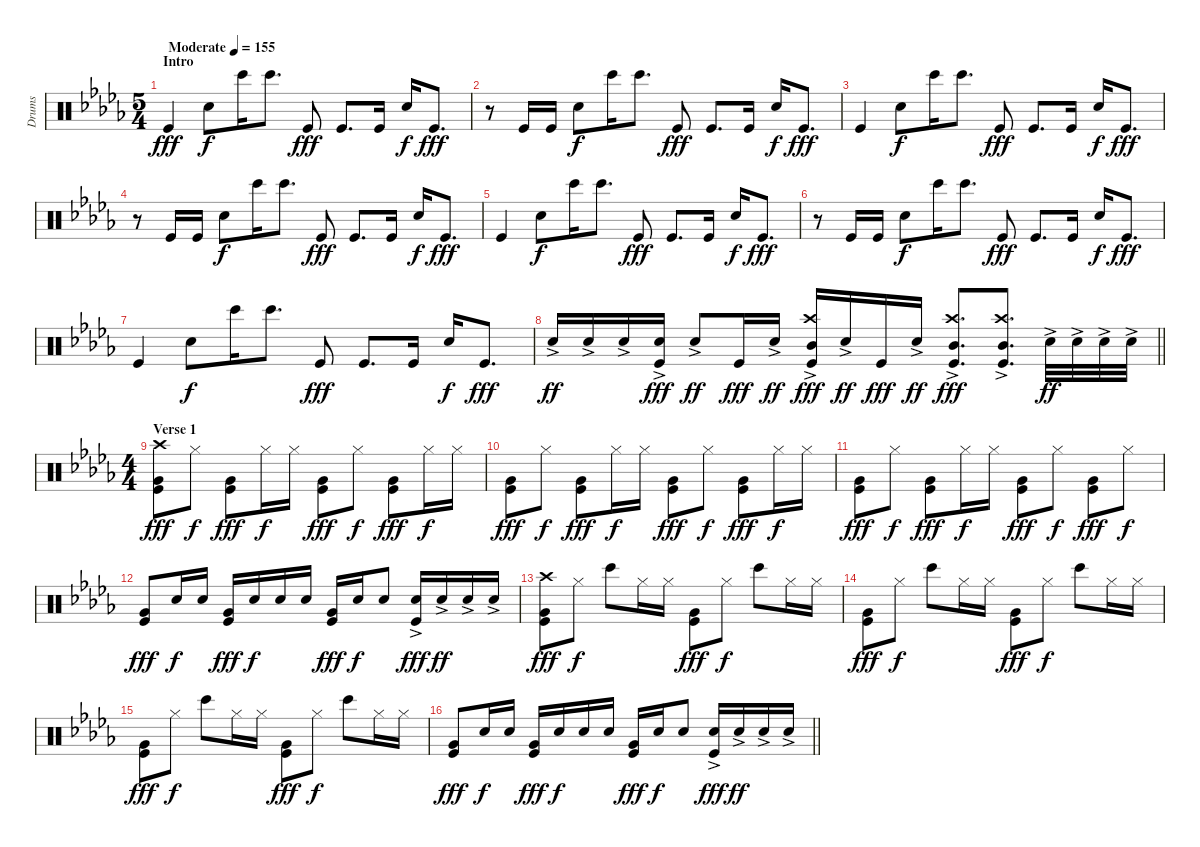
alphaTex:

\track ("Drums" "Drums") {instrument percussion bank 25}
\staff {score}
\articulation defaults
\ts (5 4)
\section ("" "Intro")
\tempo (155 "Moderate")
\clef neutral
\ks bbminor "Kick (hit)".4{dy fff} "Snare (hit) 2".8{dy f} "Bongo High (hit)".16 "Bongo High (hit)".8{d} "Kick (hit)".8{dy fff} "Kick (hit)".8{d} "Kick (hit)".16 "Snare (hit) 2".16{dy f} "Kick (hit)".8{d dy fff}
|
r.8 "Kick (hit)".16 "Kick (hit)".16 "Snare (hit) 2".8{dy f} "Bongo High (hit)".16 "Bongo High (hit)".8{d} "Kick (hit)".8{dy fff} "Kick (hit)".8{d} "Kick (hit)".16 "Snare (hit) 2".16{dy f} "Kick (hit)".8{d dy fff} |
"Kick (hit)".4 "Snare (hit) 2".8{dy f} "Bongo High (hit)".16 "Bongo High (hit)".8{d} "Kick (hit)".8{dy fff} "Kick (hit)".8{d} "Kick (hit)".16 "Snare (hit) 2".16{dy f} "Kick (hit)".8{d dy fff} |
r.8 "Kick (hit)".16 "Kick (hit)".16 "Snare (hit) 2".8{dy f} "Bongo High (hit)".16 "Bongo High (hit)".8{d} "Kick (hit)".8{dy fff} "Kick (hit)".8{d} "Kick (hit)".16 "Snare (hit) 2".16{dy f} "Kick (hit)".8{d dy fff} |
"Kick (hit)".4 "Snare (hit) 2".8{dy f} "Bongo High (hit)".16 "Bongo High (hit)".8{d} "Kick (hit)".8{dy fff} "Kick (hit)".8{d} "Kick (hit)".16 "Snare (hit) 2".16{dy f} "Kick (hit)".8{d dy fff} |
r.8 "Kick (hit)".16 "Kick (hit)".16 "Snare (hit) 2".8{dy f} "Bongo High (hit)".16 "Bongo High (hit)".8{d} "Kick (hit)".8{dy fff} "Kick (hit)".8{d} "Kick (hit)".16 "Snare (hit) 2".16{dy f} "Kick (hit)".8{d dy fff} |
"Kick (hit)".4 "Snare (hit) 2".8{dy f} "Bongo High (hit)".16 "Bongo High (hit)".8{d} "Kick (hit)".8{dy fff} "Kick (hit)".8{d} "Kick (hit)".16 "Snare (hit) 2".16{dy f} "Kick (hit)".8{d dy fff} |
\barLineRight lightlight "Snare (hit) 2"{ac}.16{dy ff} "Snare (hit) 2"{ac}.16 "Snare (hit) 2"{ac}.16
("Snare (hit) 2"{ac} "Kick (hit)").16{dy fff} "Snare (hit) 2"{ac}.8{dy ff} "Kick (hit)".16{dy fff} "Snare (hit) 2"{ac}.16{dy ff} ("Crash high (hit)" "Mid Tom (hit)"{ac} "Kick (hit)").16{dy fff} "Snare (hit) 2"{ac}.16{dy ff} "Kick (hit)".16{dy fff} "Snare (hit) 2"{ac}.16{dy ff} ("Crash high (hit)" "Mid Tom (hit)"{ac} "Kick (hit)").8{d dy fff} ("Crash high (hit)" "Mid Tom (hit)"{ac} "Kick (hit)").8{d} "Snare (hit) 2"{ac}.32{dy ff} "Snare (hit) 2"{ac}.32 "Snare (hit) 2"{ac}.32 "Snare (hit) 2"{ac}.32 |
\ts (4 4)
\section ("" "Verse 1")
("Crash high (hit)" "Very Low Tom (hit)" "Kick (hit)").8{dy fff} "Hi-Hat (closed)".8{dy f} ("Very Low Tom (hit)" "Kick (hit)").8{dy fff} "Hi-Hat (closed)".16{dy f} "Hi-Hat (closed)".16 ("Very Low Tom (hit)" "Kick (hit)").8{dy fff} "Hi-Hat (closed)".8{dy f} ("Very Low Tom (hit)" "Kick (hit)").8{dy fff} "Hi-Hat (closed)".16{dy f} "Hi-Hat (closed)".16 |
("Very Low Tom (hit)" "Kick (hit)").8{dy fff} "Hi-Hat (closed)".8{dy f} ("Very Low Tom (hit)" "Kick (hit)").8{dy fff} "Hi-Hat (closed)".16{dy f} "Hi-Hat (closed)".16 ("Very Low Tom (hit)" "Kick (hit)").8{dy fff} "Hi-Hat (closed)".8{dy f} ("Very Low Tom (hit)" "Kick (hit)").8{dy fff} "Hi-Hat (closed)".16{dy f} "Hi-Hat (closed)".16 |
("Very Low Tom (hit)" "Kick (hit)").8{dy fff} "Hi-Hat (closed)".8{dy f} ("Very Low Tom (hit)" "Kick (hit)").8{dy fff} "Hi-Hat (closed)".16{dy f} "Hi-Hat (closed)".16 ("Very Low Tom (hit)" "Kick (hit)").8{dy fff} "Hi-Hat (closed)".8{dy f} ("Very Low Tom (hit)" "Kick (hit)").8{dy fff} "Hi-Hat (closed)".8{dy f} |
("Very Low Tom (hit)" "Kick (hit)").8{dy fff} "Snare (hit) 2".16{dy f} "Snare (hit) 2".16 ("Very Low Tom (hit)" "Kick (hit)").16{dy fff} "Snare (hit) 2".16{dy f} "Snare (hit) 2".16 "Snare (hit) 2".16 ("Very Low Tom (hit)" "Kick (hit)").16{dy fff} "Snare (hit) 2".16{dy f} "Snare (hit) 2".8 ("Snare (hit) 2"{ac} "Kick (hit)").16{dy fff} "Snare (hit) 2"{ac}.16{dy ff} "Snare (hit) 2"{ac}.16 "Snare (hit) 2"{ac}.16 |
("Crash high (hit)" "Very Low Tom (hit)" "Kick (hit)").8{dy fff} "Hi-Hat (closed)".8{dy f} "Bongo High (hit)".8 "Hi-Hat (closed)".16 "Hi-Hat (closed)".16 ("Very Low Tom (hit)" "Kick (hit)").8{dy fff} "Hi-Hat (closed)".8{dy f} "Bongo High (hit)".8 "Hi-Hat (closed)".16 "Hi-Hat (closed)".16 |
("Very Low Tom (hit)" "Kick (hit)").8{dy fff} "Hi-Hat (closed)".8{dy f} "Bongo High (hit)".8 "Hi-Hat (closed)".16 "Hi-Hat (closed)".16 ("Very Low Tom (hit)" "Kick (hit)").8{dy fff} "Hi-Hat (closed)".8{dy f} "Bongo High (hit)".8 "Hi-Hat (closed)".16 "Hi-Hat (closed)".16 |
("Very Low Tom (hit)" "Kick (hit)").8{dy fff} "Hi-Hat (closed)".8{dy f} "Bongo High (hit)".8 "Hi-Hat (closed)".16 "Hi-Hat (closed)".16 ("Very Low Tom (hit)" "Kick (hit)").8{dy fff} "Hi-Hat (closed)".8{dy f} "Bongo High (hit)".8 "Hi-Hat (closed)".16 "Hi-Hat (closed)".16 |
\barLineRight lightlight
("Very Low Tom (hit)" "Kick (hit)").8{dy fff} "Snare (hit) 2".16{dy f} "Snare (hit) 2".16 ("Very Low Tom (hit)" "Kick (hit)").16{dy fff} "Snare (hit) 2".16{dy f} "Snare (hit) 2".16 "Snare (hit) 2".16 ("Very Low Tom (hit)" "Kick (hit)").16{dy fff} "Snare (hit) 2".16{dy f} "Snare (hit) 2".8 ("Snare (hit) 2"{ac} "Kick (hit)").16{dy fff} "Snare (hit) 2"{ac}.16{dy ff} "Snare (hit) 2"{ac}.16 "Snare (hit) 2"{ac}.16
